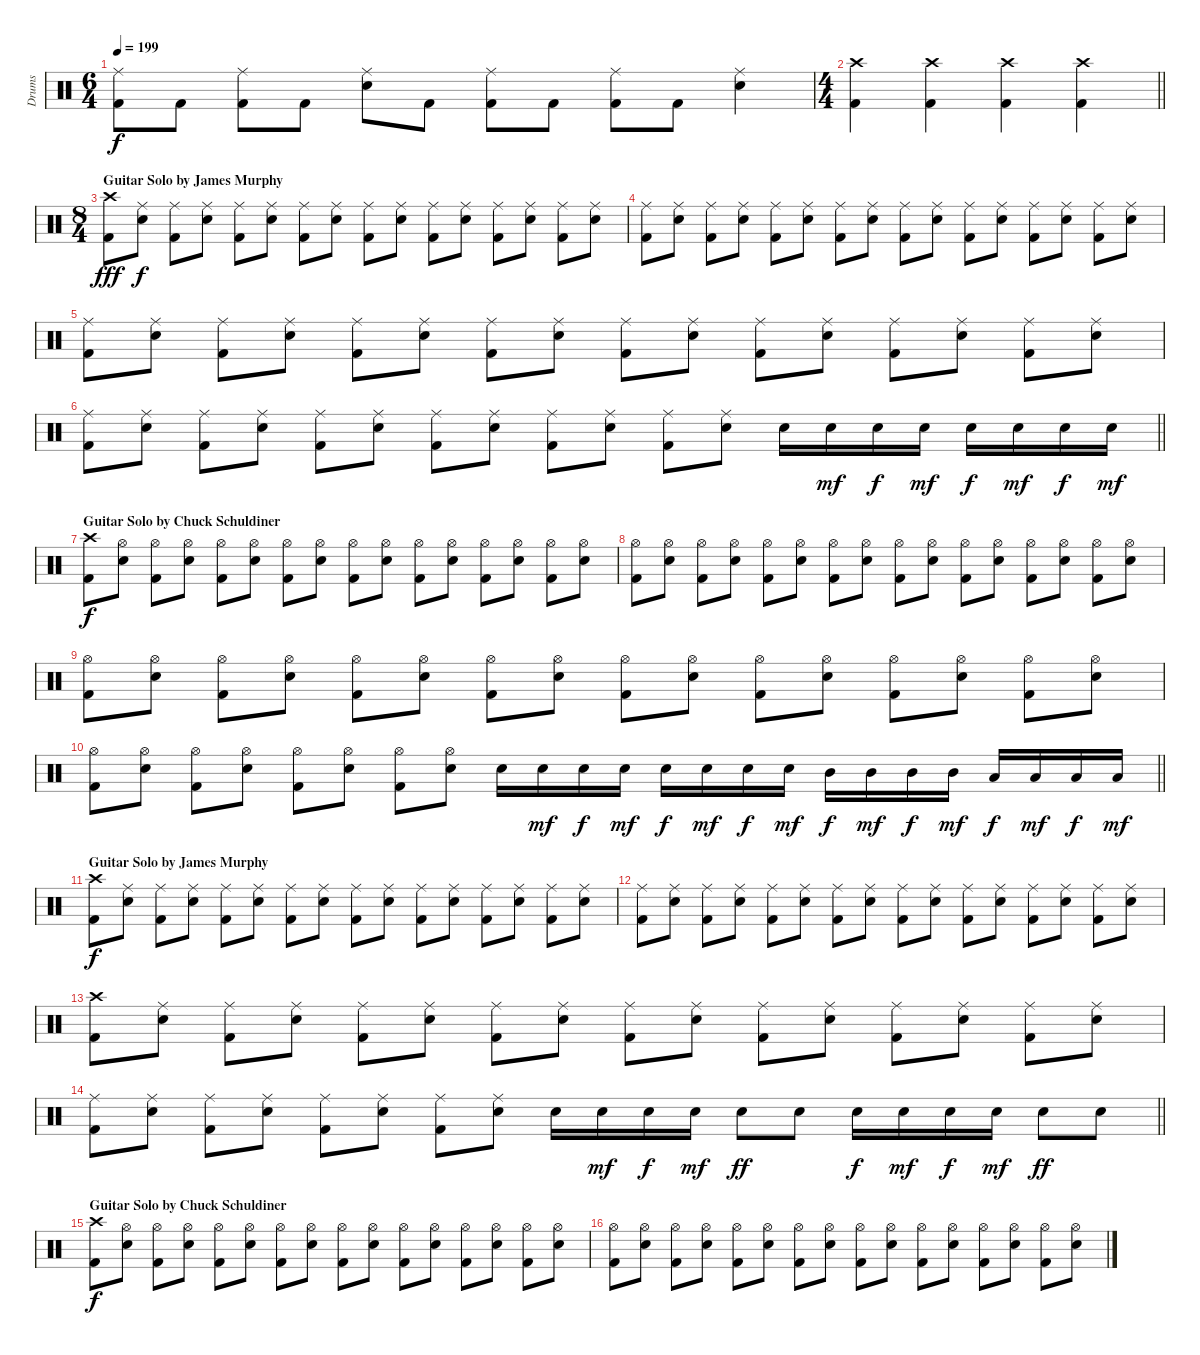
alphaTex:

\track ("Drums" "Drums") {instrument percussion}
\staff {score}
\articulation defaults
\ts (6 4)
\tempo 199
\clef neutral
\ks c
("Ride (middle)" "Kick (hit) 2").8{dy f} "Kick (hit) 2".8 ("Ride (middle)" "Kick (hit) 2").8 "Kick (hit) 2".8 ("Ride (middle)" "Snare (hit) 2").8 "Kick (hit) 2".8 ("Ride (middle)" "Kick (hit) 2").8 "Kick (hit) 2".8 ("Ride (middle)" "Kick (hit) 2").8 "Kick (hit) 2".8 ("Ride (middle)" "Snare (hit) 2").4 |
\ts (4 4)
\barLineRight lightlight
("Crash high (hit)" "Kick (hit) 2").4 ("Crash high (hit)" "Kick (hit) 2").4 ("Crash high (hit)" "Kick (hit) 2").4 ("Crash high (hit)" "Kick (hit) 2").4 |
\ts (8 4)
\section ("" "Guitar Solo by James Murphy")
("Crash high (hit)" "Kick (hit) 2").8{dy fff} ("Ride (middle)" "Snare (hit) 2").8{dy f} ("Ride (middle)" "Kick (hit) 2").8 ("Ride (middle)" "Snare (hit) 2").8 ("Ride (middle)" "Kick (hit) 2").8 ("Ride (middle)" "Snare (hit) 2").8 ("Ride (middle)" "Kick (hit) 2").8 ("Ride (middle)" "Snare (hit) 2").8 ("Ride (middle)" "Kick (hit) 2").8 ("Ride (middle)" "Snare (hit) 2").8 ("Ride (middle)" "Kick (hit) 2").8 ("Ride (middle)" "Snare (hit) 2").8 ("Ride (middle)" "Kick (hit) 2").8 ("Ride (middle)" "Snare (hit) 2").8 ("Ride (middle)" "Kick (hit) 2").8 ("Ride (middle)" "Snare (hit) 2").8 |
("Ride (middle)" "Kick (hit) 2").8 ("Ride (middle)" "Snare (hit) 2").8 ("Ride (middle)" "Kick (hit) 2").8 ("Ride (middle)" "Snare (hit) 2").8 ("Ride (middle)" "Kick (hit) 2").8 ("Ride (middle)" "Snare (hit) 2").8 ("Ride (middle)" "Kick (hit) 2").8 ("Ride (middle)" "Snare (hit) 2").8 ("Ride (middle)" "Kick (hit) 2").8 ("Ride (middle)" "Snare (hit) 2").8 ("Ride (middle)" "Kick (hit) 2").8 ("Ride (middle)" "Snare (hit) 2").8 ("Ride (middle)" "Kick (hit) 2").8 ("Ride (middle)" "Snare (hit) 2").8 ("Ride (middle)" "Kick (hit) 2").8 ("Ride (middle)" "Snare (hit) 2").8 |
("Ride (middle)" "Kick (hit) 2").8 ("Ride (middle)" "Snare (hit) 2").8 ("Ride (middle)" "Kick (hit) 2").8 ("Ride (middle)" "Snare (hit) 2").8 ("Ride (middle)" "Kick (hit) 2").8 ("Ride (middle)" "Snare (hit) 2").8 ("Ride (middle)" "Kick (hit) 2").8 ("Ride (middle)" "Snare (hit) 2").8 ("Ride (middle)" "Kick (hit) 2").8 ("Ride (middle)" "Snare (hit) 2").8 ("Ride (middle)" "Kick (hit) 2").8 ("Ride (middle)" "Snare (hit) 2").8 ("Ride (middle)" "Kick (hit) 2").8 ("Ride (middle)" "Snare (hit) 2").8 ("Ride (middle)" "Kick (hit) 2").8 ("Ride (middle)" "Snare (hit) 2").8 |
\barLineRight lightlight
("Ride (middle)" "Kick (hit) 2").8 ("Ride (middle)" "Snare (hit) 2").8 ("Ride (middle)" "Kick (hit) 2").8 ("Ride (middle)" "Snare (hit) 2").8 ("Ride (middle)" "Kick (hit) 2").8 ("Ride (middle)" "Snare (hit) 2").8 ("Ride (middle)" "Kick (hit) 2").8 ("Ride (middle)" "Snare (hit) 2").8 ("Ride (middle)" "Kick (hit) 2").8 ("Ride (middle)" "Snare (hit) 2").8 ("Ride (middle)" "Kick (hit) 2").8 ("Ride (middle)" "Snare (hit) 2").8 "Snare (hit) 2".16 "Snare (hit) 2".16{dy mf} "Snare (hit) 2".16{dy f} "Snare (hit) 2".16{dy mf} "Snare (hit) 2".16{dy f} "Snare (hit) 2".16{dy mf} "Snare (hit) 2".16{dy f} "Snare (hit) 2".16{dy mf} |
\section ("" "Guitar Solo by Chuck Schuldiner")
("Crash high (hit)" "Kick (hit) 2").8{dy f} ("Hi-Hat (open)" "Snare (hit) 2").8 ("Hi-Hat (open)" "Kick (hit) 2").8 ("Hi-Hat (open)" "Snare (hit) 2").8 ("Hi-Hat (open)" "Kick (hit) 2").8 ("Hi-Hat (open)" "Snare (hit) 2").8 ("Hi-Hat (open)" "Kick (hit) 2").8 ("Hi-Hat (open)" "Snare (hit) 2").8 ("Hi-Hat (open)" "Kick (hit) 2").8 ("Hi-Hat (open)" "Snare (hit) 2").8 ("Hi-Hat (open)" "Kick (hit) 2").8 ("Hi-Hat (open)" "Snare (hit) 2").8 ("Hi-Hat (open)" "Kick (hit) 2").8 ("Hi-Hat (open)" "Snare (hit) 2").8 ("Hi-Hat (open)" "Kick (hit) 2").8 ("Hi-Hat (open)" "Snare (hit) 2").8 |
("Hi-Hat (open)" "Kick (hit) 2").8 ("Hi-Hat (open)" "Snare (hit) 2").8 ("Hi-Hat (open)" "Kick (hit) 2").8 ("Hi-Hat (open)" "Snare (hit) 2").8 ("Hi-Hat (open)" "Kick (hit) 2").8 ("Hi-Hat (open)" "Snare (hit) 2").8 ("Hi-Hat (open)" "Kick (hit) 2").8 ("Hi-Hat (open)" "Snare (hit) 2").8 ("Hi-Hat (open)" "Kick (hit) 2").8 ("Hi-Hat (open)" "Snare (hit) 2").8 ("Hi-Hat (open)" "Kick (hit) 2").8 ("Hi-Hat (open)" "Snare (hit) 2").8 ("Hi-Hat (open)" "Kick (hit) 2").8 ("Hi-Hat (open)" "Snare (hit) 2").8 ("Hi-Hat (open)" "Kick (hit) 2").8 ("Hi-Hat (open)" "Snare (hit) 2").8 |
("Hi-Hat (open)" "Kick (hit) 2").8 ("Hi-Hat (open)" "Snare (hit) 2").8 ("Hi-Hat (open)" "Kick (hit) 2").8 ("Hi-Hat (open)" "Snare (hit) 2").8 ("Hi-Hat (open)" "Kick (hit) 2").8 ("Hi-Hat (open)" "Snare (hit) 2").8 ("Hi-Hat (open)" "Kick (hit) 2").8 ("Hi-Hat (open)" "Snare (hit) 2").8 ("Hi-Hat (open)" "Kick (hit) 2").8 ("Hi-Hat (open)" "Snare (hit) 2").8 ("Hi-Hat (open)" "Kick (hit) 2").8 ("Hi-Hat (open)" "Snare (hit) 2").8 ("Hi-Hat (open)" "Kick (hit) 2").8 ("Hi-Hat (open)" "Snare (hit) 2").8 ("Hi-Hat (open)" "Kick (hit) 2").8 ("Hi-Hat (open)" "Snare (hit) 2").8 |
\barLineRight lightlight
("Hi-Hat (open)" "Kick (hit) 2").8 ("Hi-Hat (open)" "Snare (hit) 2").8 ("Hi-Hat (open)" "Kick (hit) 2").8 ("Hi-Hat (open)" "Snare (hit) 2").8 ("Hi-Hat (open)" "Kick (hit) 2").8 ("Hi-Hat (open)" "Snare (hit) 2").8 ("Hi-Hat (open)" "Kick (hit) 2").8 ("Hi-Hat (open)" "Snare (hit) 2").8 "Snare (hit) 2".16 "Snare (hit) 2".16{dy mf} "Snare (hit) 2".16{dy f} "Snare (hit) 2".16{dy mf} "Snare (hit) 2".16{dy f} "Snare (hit) 2".16{dy mf} "Snare (hit) 2".16{dy f} "Snare (hit) 2".16{dy mf} "Mid Tom (hit)".16{dy f} "Mid Tom (hit)".16{dy mf} "Mid Tom (hit)".16{dy f} "Mid Tom (hit)".16{dy mf} "Low Tom (hit)".16{dy f} "Low Tom (hit)".16{dy mf} "Low Tom (hit)".16{dy f} "Low Tom (hit)".16{dy mf} |
\section ("" "Guitar Solo by James Murphy")
("Crash high (hit)" "Kick (hit) 2").8{dy f} ("Ride (middle)" "Snare (hit) 2").8 ("Ride (middle)" "Kick (hit) 2").8 ("Ride (middle)" "Snare (hit) 2").8 ("Ride (middle)" "Kick (hit) 2").8 ("Ride (middle)" "Snare (hit) 2").8 ("Ride (middle)" "Kick (hit) 2").8 ("Ride (middle)" "Snare (hit) 2").8 ("Ride (middle)" "Kick (hit) 2").8 ("Ride (middle)" "Snare (hit) 2").8 ("Ride (middle)" "Kick (hit) 2").8 ("Ride (middle)" "Snare (hit) 2").8 ("Ride (middle)" "Kick (hit) 2").8 ("Ride (middle)" "Snare (hit) 2").8 ("Ride (middle)" "Kick (hit) 2").8 ("Ride (middle)" "Snare (hit) 2").8 |
("Ride (middle)" "Kick (hit) 2").8 ("Ride (middle)" "Snare (hit) 2").8 ("Ride (middle)" "Kick (hit) 2").8 ("Ride (middle)" "Snare (hit) 2").8 ("Ride (middle)" "Kick (hit) 2").8 ("Ride (middle)" "Snare (hit) 2").8 ("Ride (middle)" "Kick (hit) 2").8 ("Ride (middle)" "Snare (hit) 2").8 ("Ride (middle)" "Kick (hit) 2").8 ("Ride (middle)" "Snare (hit) 2").8 ("Ride (middle)" "Kick (hit) 2").8 ("Ride (middle)" "Snare (hit) 2").8 ("Ride (middle)" "Kick (hit) 2").8 ("Ride (middle)" "Snare (hit) 2").8 ("Ride (middle)" "Kick (hit) 2").8 ("Ride (middle)" "Snare (hit) 2").8 |
("Crash high (hit)" "Kick (hit) 2").8 ("Ride (middle)" "Snare (hit) 2").8 ("Ride (middle)" "Kick (hit) 2").8 ("Ride (middle)" "Snare (hit) 2").8 ("Ride (middle)" "Kick (hit) 2").8 ("Ride (middle)" "Snare (hit) 2").8 ("Ride (middle)" "Kick (hit) 2").8 ("Ride (middle)" "Snare (hit) 2").8 ("Ride (middle)" "Kick (hit) 2").8 ("Ride (middle)" "Snare (hit) 2").8 ("Ride (middle)" "Kick (hit) 2").8 ("Ride (middle)" "Snare (hit) 2").8 ("Ride (middle)" "Kick (hit) 2").8 ("Ride (middle)" "Snare (hit) 2").8 ("Ride (middle)" "Kick (hit) 2").8 ("Ride (middle)" "Snare (hit) 2").8 |
\barLineRight lightlight
("Ride (middle)" "Kick (hit) 2").8 ("Ride (middle)" "Snare (hit) 2").8 ("Ride (middle)" "Kick (hit) 2").8 ("Ride (middle)" "Snare (hit) 2").8 ("Ride (middle)" "Kick (hit) 2").8 ("Ride (middle)" "Snare (hit) 2").8 ("Ride (middle)" "Kick (hit) 2").8 ("Ride (middle)" "Snare (hit) 2").8 "Snare (hit) 2".16 "Snare (hit) 2".16{dy mf} "Snare (hit) 2".16{dy f} "Snare (hit) 2".16{dy mf} "Snare (hit) 2".8{dy ff} "Snare (hit) 2".8 "Snare (hit) 2".16{dy f} "Snare (hit) 2".16{dy mf} "Snare (hit) 2".16{dy f} "Snare (hit) 2".16{dy mf} "Snare (hit) 2".8{dy ff} "Snare (hit) 2".8 |
\section ("" "Guitar Solo by Chuck Schuldiner")
("Crash high (hit)" "Kick (hit) 2").8{dy f} ("Hi-Hat (open)" "Snare (hit) 2").8 ("Hi-Hat (open)" "Kick (hit) 2").8 ("Hi-Hat (open)" "Snare (hit) 2").8 ("Hi-Hat (open)" "Kick (hit) 2").8 ("Hi-Hat (open)" "Snare (hit) 2").8 ("Hi-Hat (open)" "Kick (hit) 2").8 ("Hi-Hat (open)" "Snare (hit) 2").8 ("Hi-Hat (open)" "Kick (hit) 2").8 ("Hi-Hat (open)" "Snare (hit) 2").8 ("Hi-Hat (open)" "Kick (hit) 2").8 ("Hi-Hat (open)" "Snare (hit) 2").8 ("Hi-Hat (open)" "Kick (hit) 2").8 ("Hi-Hat (open)" "Snare (hit) 2").8 ("Hi-Hat (open)" "Kick (hit) 2").8 ("Hi-Hat (open)" "Snare (hit) 2").8 |
("Hi-Hat (open)" "Kick (hit) 2").8 ("Hi-Hat (open)" "Snare (hit) 2").8 ("Hi-Hat (open)" "Kick (hit) 2").8 ("Hi-Hat (open)" "Snare (hit) 2").8 ("Hi-Hat (open)" "Kick (hit) 2").8 ("Hi-Hat (open)" "Snare (hit) 2").8 ("Hi-Hat (open)" "Kick (hit) 2").8 ("Hi-Hat (open)" "Snare (hit) 2").8 ("Hi-Hat (open)" "Kick (hit) 2").8 ("Hi-Hat (open)" "Snare (hit) 2").8 ("Hi-Hat (open)" "Kick (hit) 2").8 ("Hi-Hat (open)" "Snare (hit) 2").8 ("Hi-Hat (open)" "Kick (hit) 2").8 ("Hi-Hat (open)" "Snare (hit) 2").8 ("Hi-Hat (open)" "Kick (hit) 2").8 ("Hi-Hat (open)" "Snare (hit) 2").8
